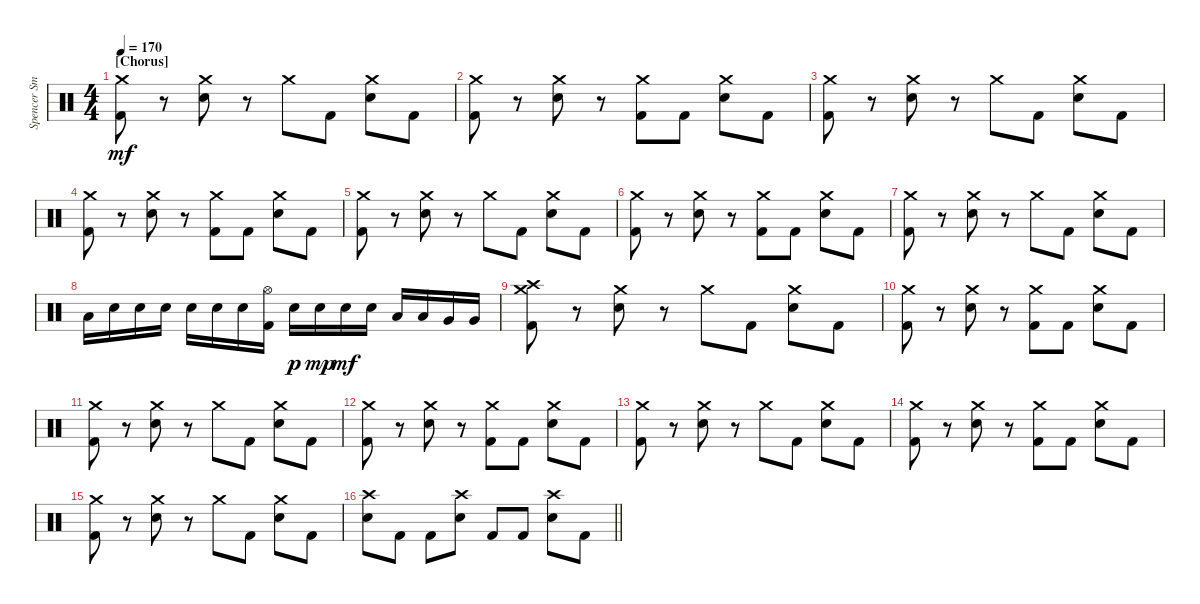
\track ("Spencer Smith" "Spencer Sm") {instrument percussion}
\staff {score}
\articulation defaults
\ts (4 4)
\section ("" "[Chorus]")
\tempo 170
\clef neutral
\ks c
("Crash medium (hit)" "Kick (hit) 2").8{dy mf} r.8 ("Crash medium (hit)" "Electric Snare (hit)").8 r.8 "Crash medium (hit)".8 "Kick (hit) 2".8 ("Crash medium (hit)" "Electric Snare (hit)").8 "Kick (hit) 2".8 |
("Crash medium (hit)" "Kick (hit) 2").8 r.8 ("Crash medium (hit)" "Electric Snare (hit)").8 r.8 ("Crash medium (hit)" "Kick (hit) 2").8 "Kick (hit) 2".8 ("Crash medium (hit)" "Electric Snare (hit)").8 "Kick (hit) 2".8 |
("Crash medium (hit)" "Kick (hit) 2").8 r.8 ("Crash medium (hit)" "Electric Snare (hit)").8 r.8 "Crash medium (hit)".8 "Kick (hit) 2".8 ("Crash medium (hit)" "Electric Snare (hit)").8 "Kick (hit) 2".8 |
("Crash medium (hit)" "Kick (hit) 2").8 r.8 ("Crash medium (hit)" "Electric Snare (hit)").8 r.8 ("Crash medium (hit)" "Kick (hit) 2").8 "Kick (hit) 2".8 ("Crash medium (hit)" "Electric Snare (hit)").8 "Kick (hit) 2".8 |
("Crash medium (hit)" "Kick (hit) 2").8 r.8 ("Crash medium (hit)" "Electric Snare (hit)").8 r.8 "Crash medium (hit)".8 "Kick (hit) 2".8 ("Crash medium (hit)" "Electric Snare (hit)").8 "Kick (hit) 2".8 |
("Crash medium (hit)" "Kick (hit) 2").8 r.8 ("Crash medium (hit)" "Electric Snare (hit)").8 r.8 ("Crash medium (hit)" "Kick (hit) 2").8 "Kick (hit) 2".8 ("Crash medium (hit)" "Electric Snare (hit)").8 "Kick (hit) 2".8 |
("Crash medium (hit)" "Kick (hit) 2").8 r.8 ("Crash medium (hit)" "Electric Snare (hit)").8 r.8 "Crash medium (hit)".8 "Kick (hit) 2".8 ("Crash medium (hit)" "Electric Snare (hit)").8 "Kick (hit) 2".8 |
"Low Tom (hit)".16 "Electric Snare (hit)".16 "Electric Snare (hit)".16 "Electric Snare (hit)".16 "Electric Snare (hit)".16 "Electric Snare (hit)".16 "Electric Snare (hit)".16 ("Hi-Hat (open)" "Kick (hit) 2").16 "Electric Snare (hit)".16{dy p} "Electric Snare (hit)".16{dy mp} "Electric Snare (hit)".16{dy mf} "Electric Snare (hit)".16 "Low Tom (hit)".16 "Low Tom (hit)".16 "Very Low Tom (hit)".16 "Very Low Tom (hit)".16 |
("Crash high (hit)" "Crash medium (hit)" "Kick (hit) 2").8 r.8 ("Crash medium (hit)" "Electric Snare (hit)").8 r.8 "Crash medium (hit)".8 "Kick (hit) 2".8 ("Crash medium (hit)" "Electric Snare (hit)").8 "Kick (hit) 2".8 |
("Crash medium (hit)" "Kick (hit) 2").8 r.8 ("Crash medium (hit)" "Electric Snare (hit)").8 r.8 ("Crash medium (hit)" "Kick (hit) 2").8 "Kick (hit) 2".8 ("Crash medium (hit)" "Electric Snare (hit)").8 "Kick (hit) 2".8 |
("Crash medium (hit)" "Kick (hit) 2").8 r.8 ("Crash medium (hit)" "Electric Snare (hit)").8 r.8 "Crash medium (hit)".8 "Kick (hit) 2".8 ("Crash medium (hit)" "Electric Snare (hit)").8 "Kick (hit) 2".8 |
("Crash medium (hit)" "Kick (hit) 2").8 r.8 ("Crash medium (hit)" "Electric Snare (hit)").8 r.8 ("Crash medium (hit)" "Kick (hit) 2").8 "Kick (hit) 2".8 ("Crash medium (hit)" "Electric Snare (hit)").8 "Kick (hit) 2".8 |
("Crash medium (hit)" "Kick (hit) 2").8 r.8 ("Crash medium (hit)" "Electric Snare (hit)").8 r.8 "Crash medium (hit)".8 "Kick (hit) 2".8 ("Crash medium (hit)" "Electric Snare (hit)").8 "Kick (hit) 2".8 |
("Crash medium (hit)" "Kick (hit) 2").8 r.8 ("Crash medium (hit)" "Electric Snare (hit)").8 r.8 ("Crash medium (hit)" "Kick (hit) 2").8 "Kick (hit) 2".8 ("Crash medium (hit)" "Electric Snare (hit)").8 "Kick (hit) 2".8 |
("Crash medium (hit)" "Kick (hit) 2").8 r.8 ("Crash medium (hit)" "Electric Snare (hit)").8 r.8 "Crash medium (hit)".8 "Kick (hit) 2".8 ("Crash medium (hit)" "Electric Snare (hit)").8 "Kick (hit) 2".8 |
\barLineRight lightlight
("Crash high (hit)" "Electric Snare (hit)").8 "Kick (hit) 2".8 "Kick (hit) 2".8 ("Crash high (hit)" "Electric Snare (hit)").8 "Kick (hit) 2".8 "Kick (hit) 2".8 ("Crash high (hit)" "Electric Snare (hit)").8 "Kick (hit) 2".8
